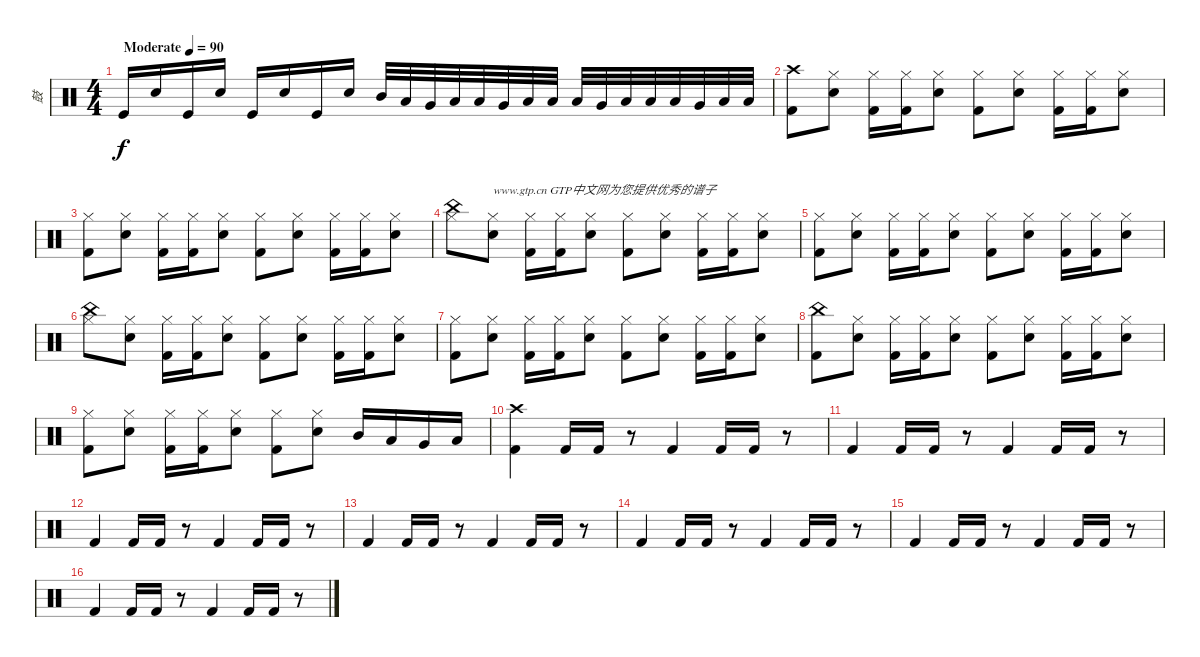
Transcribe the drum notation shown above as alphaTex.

\track ("鼓" "鼓") {instrument percussion}
\staff {score}
\articulation defaults
\ts (4 4)
\tempo (90 "Moderate")
\clef neutral
\ks c "Kick (hit)".16{dy f} "Snare (hit) 2".16 "Kick (hit)".16 "Snare (hit) 2".16 "Kick (hit)".16 "Snare (hit) 2".16 "Kick (hit)".16 "Snare (hit) 2".16 "Mid Tom (hit)".32 "Low Tom (hit)".32 "Very Low Tom (hit)".32 "Low Floor Tom (hit)".32 "Low Tom (hit)".32 "Very Low Tom (hit)".32 "Low Floor Tom (hit)".32 "Low Floor Tom (hit)".32 "Low Tom (hit)".32 "Very Low Tom (hit)".32 "Low Floor Tom (hit)".32 "Low Floor Tom (hit)".32 "Low Tom (hit)".32 "Very Low Tom (hit)".32 "Low Floor Tom (hit)".32 "Low Floor Tom (hit)".32
|
("Kick (hit) 2" "Crash high (hit)").8 ("Electric Snare (hit)" "Hi-Hat (closed)").8 ("Kick (hit) 2" "Hi-Hat (closed)").16 ("Kick (hit) 2" "Hi-Hat (closed)").16 ("Electric Snare (hit)" "Hi-Hat (closed)").8 ("Kick (hit) 2" "Hi-Hat (closed)").8 ("Electric Snare (hit)" "Hi-Hat (closed)").8 ("Kick (hit) 2" "Hi-Hat (closed)").16 ("Kick (hit) 2" "Hi-Hat (closed)").16 ("Electric Snare (hit)" "Hi-Hat (closed)").8 |
("Kick (hit) 2" "Hi-Hat (closed)").8 ("Electric Snare (hit)" "Hi-Hat (closed)").8 ("Kick (hit) 2" "Hi-Hat (closed)").16 ("Kick (hit) 2" "Hi-Hat (closed)").16 ("Electric Snare (hit)" "Hi-Hat (closed)").8 ("Kick (hit) 2" "Hi-Hat (closed)").8 ("Electric Snare (hit)" "Hi-Hat (closed)").8 ("Kick (hit) 2" "Hi-Hat (closed)").16 ("Kick (hit) 2" "Hi-Hat (closed)").16 ("Electric Snare (hit)" "Hi-Hat (closed)").8 |
("China (hit)" "Hi-Hat (closed)").8 ("Electric Snare (hit)" "Hi-Hat (closed)").8{txt "www.gtp.cn GTP中文网为您提供优秀的谱子"} ("Kick (hit) 2" "Hi-Hat (closed)").16 ("Kick (hit) 2" "Hi-Hat (closed)").16 ("Electric Snare (hit)" "Hi-Hat (closed)").8 ("Kick (hit) 2" "Hi-Hat (closed)").8 ("Electric Snare (hit)" "Hi-Hat (closed)").8 ("Kick (hit) 2" "Hi-Hat (closed)").16 ("Kick (hit) 2" "Hi-Hat (closed)").16 ("Electric Snare (hit)" "Hi-Hat (closed)").8 |
("Kick (hit) 2" "Hi-Hat (closed)").8 ("Electric Snare (hit)" "Hi-Hat (closed)").8 ("Kick (hit) 2" "Hi-Hat (closed)").16 ("Kick (hit) 2" "Hi-Hat (closed)").16 ("Electric Snare (hit)" "Hi-Hat (closed)").8 ("Kick (hit) 2" "Hi-Hat (closed)").8 ("Electric Snare (hit)" "Hi-Hat (closed)").8 ("Kick (hit) 2" "Hi-Hat (closed)").16 ("Kick (hit) 2" "Hi-Hat (closed)").16 ("Electric Snare (hit)" "Hi-Hat (closed)").8 |
("China (hit)" "Hi-Hat (closed)").8 ("Electric Snare (hit)" "Hi-Hat (closed)").8 ("Kick (hit) 2" "Hi-Hat (closed)").16 ("Kick (hit) 2" "Hi-Hat (closed)").16 ("Electric Snare (hit)" "Hi-Hat (closed)").8 ("Kick (hit) 2" "Hi-Hat (closed)").8 ("Electric Snare (hit)" "Hi-Hat (closed)").8 ("Kick (hit) 2" "Hi-Hat (closed)").16 ("Kick (hit) 2" "Hi-Hat (closed)").16 ("Electric Snare (hit)" "Hi-Hat (closed)").8 |
("Kick (hit) 2" "Hi-Hat (closed)").8 ("Electric Snare (hit)" "Hi-Hat (closed)").8 ("Kick (hit) 2" "Hi-Hat (closed)").16 ("Kick (hit) 2" "Hi-Hat (closed)").16 ("Electric Snare (hit)" "Hi-Hat (closed)").8 ("Kick (hit) 2" "Hi-Hat (closed)").8 ("Electric Snare (hit)" "Hi-Hat (closed)").8 ("Kick (hit) 2" "Hi-Hat (closed)").16 ("Kick (hit) 2" "Hi-Hat (closed)").16 ("Electric Snare (hit)" "Hi-Hat (closed)").8 |
("Kick (hit) 2" "China (hit)").8 ("Electric Snare (hit)" "Hi-Hat (closed)").8 ("Kick (hit) 2" "Hi-Hat (closed)").16 ("Kick (hit) 2" "Hi-Hat (closed)").16 ("Electric Snare (hit)" "Hi-Hat (closed)").8 ("Kick (hit) 2" "Hi-Hat (closed)").8 ("Electric Snare (hit)" "Hi-Hat (closed)").8 ("Kick (hit) 2" "Hi-Hat (closed)").16 ("Kick (hit) 2" "Hi-Hat (closed)").16 ("Electric Snare (hit)" "Hi-Hat (closed)").8 |
("Kick (hit) 2" "Hi-Hat (closed)").8 ("Electric Snare (hit)" "Hi-Hat (closed)").8 ("Kick (hit) 2" "Hi-Hat (closed)").16 ("Kick (hit) 2" "Hi-Hat (closed)").16 ("Electric Snare (hit)" "Hi-Hat (closed)").8 ("Kick (hit) 2" "Hi-Hat (closed)").8 ("Electric Snare (hit)" "Hi-Hat (closed)").8 "Mid Tom (hit)".16 "Low Tom (hit)".16 "Very Low Tom (hit)".16 "Low Floor Tom (hit)".16 |
("Kick (hit) 2" "Crash high (hit)").4 "Kick (hit) 2".16 "Kick (hit) 2".16 r.8 "Kick (hit) 2".4 "Kick (hit) 2".16 "Kick (hit) 2".16 r.8 |
"Kick (hit) 2".4 "Kick (hit) 2".16 "Kick (hit) 2".16 r.8 "Kick (hit) 2".4 "Kick (hit) 2".16 "Kick (hit) 2".16 r.8 |
"Kick (hit) 2".4 "Kick (hit) 2".16 "Kick (hit) 2".16 r.8 "Kick (hit) 2".4 "Kick (hit) 2".16 "Kick (hit) 2".16 r.8 |
"Kick (hit) 2".4 "Kick (hit) 2".16 "Kick (hit) 2".16 r.8 "Kick (hit) 2".4 "Kick (hit) 2".16 "Kick (hit) 2".16 r.8 |
"Kick (hit) 2".4 "Kick (hit) 2".16 "Kick (hit) 2".16 r.8 "Kick (hit) 2".4 "Kick (hit) 2".16 "Kick (hit) 2".16 r.8 |
"Kick (hit) 2".4 "Kick (hit) 2".16 "Kick (hit) 2".16 r.8 "Kick (hit) 2".4 "Kick (hit) 2".16 "Kick (hit) 2".16 r.8 |
"Kick (hit) 2".4 "Kick (hit) 2".16 "Kick (hit) 2".16 r.8 "Kick (hit) 2".4 "Kick (hit) 2".16 "Kick (hit) 2".16 r.8
